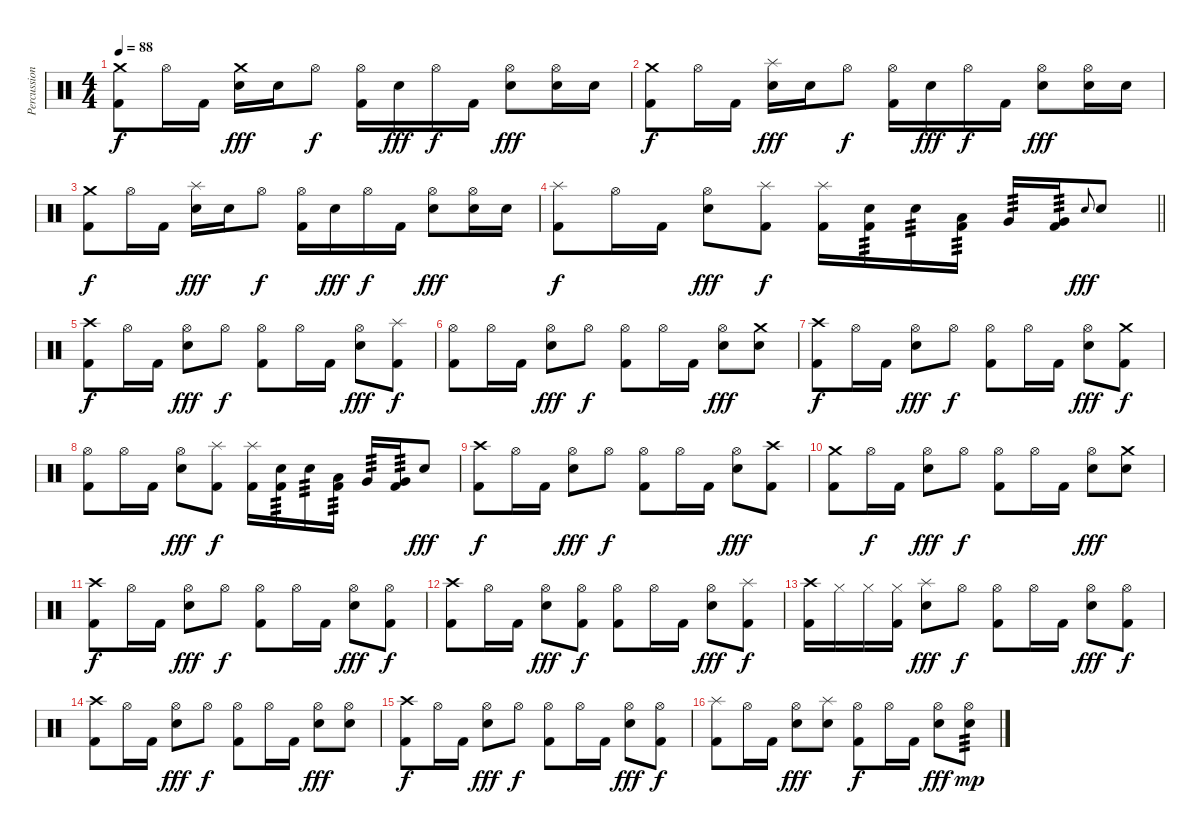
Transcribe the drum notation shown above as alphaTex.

\track ("Percussion" "Percussion") {instrument percussion}
\staff {score}
\articulation defaults
\ts (4 4)
\tempo 88
\clef neutral
\ks c
("Crash medium (hit)" "Kick (hit) 2").8{dy f} "Hi-Hat (open)".16 "Kick (hit) 2".16 ("Crash medium (hit)" "Electric Snare (hit)").16{dy fff} "Electric Snare (hit)".16 "Hi-Hat (open)".8{dy f} ("Hi-Hat (open)" "Kick (hit) 2").16 "Electric Snare (hit)".16{dy fff} "Hi-Hat (open)".16{dy f} "Kick (hit) 2".16 ("Hi-Hat (open)" "Electric Snare (hit)").8{dy fff} ("Hi-Hat (open)" "Electric Snare (hit)").16 "Electric Snare (hit)".16 |
("Crash medium (hit)" "Kick (hit) 2").8{dy f} "Hi-Hat (open)".16 "Kick (hit) 2".16 ("Splash (hit)" "Electric Snare (hit)").16{dy fff} "Electric Snare (hit)".16 "Hi-Hat (open)".8{dy f} ("Hi-Hat (open)" "Kick (hit) 2").16 "Electric Snare (hit)".16{dy fff} "Hi-Hat (open)".16{dy f} "Kick (hit) 2".16 ("Hi-Hat (open)" "Electric Snare (hit)").8{dy fff} ("Hi-Hat (open)" "Electric Snare (hit)").16 "Electric Snare (hit)".16 |
("Crash medium (hit)" "Kick (hit) 2").8{dy f} "Hi-Hat (open)".16 "Kick (hit) 2".16 ("Splash (hit)" "Electric Snare (hit)").16{dy fff} "Electric Snare (hit)".16 "Hi-Hat (open)".8{dy f} ("Hi-Hat (open)" "Kick (hit) 2").16 "Electric Snare (hit)".16{dy fff} "Hi-Hat (open)".16{dy f} "Kick (hit) 2".16 ("Hi-Hat (open)" "Electric Snare (hit)").8{dy fff} ("Hi-Hat (open)" "Electric Snare (hit)").16 "Electric Snare (hit)".16 |
\barLineRight lightlight
("Splash (hit)" "Kick (hit) 2").8{dy f} "Hi-Hat (open)".16 "Kick (hit) 2".16 ("Hi-Hat (open)" "Electric Snare (hit)").8{dy fff} ("Splash (hit)" "Kick (hit) 2").8{dy f} ("Splash (hit)" "Kick (hit) 2").16 ("Electric Snare (hit)" "Kick (hit) 2").16{tp 3} "Electric Snare (hit)".16{tp 3} ("Low Tom (hit)" "Kick (hit) 2").16{tp 3} "Very Low Tom (hit)".16{tp 3} ("Very Low Tom (hit)" "Kick (hit) 2").16{tp 3} "Electric Snare (hit)".8{gr onbeat dy fff} "Electric Snare (hit)".8 |
("Crash high (hit)" "Kick (hit) 2").8{dy f} "Hi-Hat (open)".16 "Kick (hit) 2".16 ("Hi-Hat (open)" "Electric Snare (hit)").8{dy fff} "Hi-Hat (open)".8{dy f} ("Hi-Hat (open)" "Kick (hit) 2").8 "Hi-Hat (open)".16 "Kick (hit) 2".16 ("Hi-Hat (open)" "Electric Snare (hit)").8{dy fff} ("Splash (hit)" "Kick (hit) 2").8{dy f} |
("Hi-Hat (open)" "Kick (hit) 2").8 "Hi-Hat (open)".16 "Kick (hit) 2".16 ("Hi-Hat (open)" "Electric Snare (hit)").8{dy fff} "Hi-Hat (open)".8{dy f} ("Hi-Hat (open)" "Kick (hit) 2").8 "Hi-Hat (open)".16 "Kick (hit) 2".16 ("Hi-Hat (open)" "Electric Snare (hit)").8{dy fff} ("Crash medium (hit)" "Electric Snare (hit)").8 |
("Crash high (hit)" "Kick (hit) 2").8{dy f} "Hi-Hat (open)".16 "Kick (hit) 2".16 ("Hi-Hat (open)" "Electric Snare (hit)").8{dy fff} "Hi-Hat (open)".8{dy f} ("Hi-Hat (open)" "Kick (hit) 2").8 "Hi-Hat (open)".16 "Kick (hit) 2".16 ("Hi-Hat (open)" "Electric Snare (hit)").8{dy fff} ("Crash medium (hit)" "Kick (hit) 2").8{dy f} |
("Hi-Hat (open)" "Kick (hit) 2").8 "Hi-Hat (open)".16 "Kick (hit) 2".16 ("Hi-Hat (open)" "Electric Snare (hit)").8{dy fff} ("Splash (hit)" "Kick (hit) 2").8{dy f} ("Splash (hit)" "Kick (hit) 2").16 ("Electric Snare (hit)" "Kick (hit) 2").16{tp 3} "Electric Snare (hit)".16{tp 3} ("Low Tom (hit)" "Kick (hit) 2").16{tp 3} "Very Low Tom (hit)".16{tp 3} ("Very Low Tom (hit)" "Kick (hit) 2").16{tp 3} "Electric Snare (hit)".8{dy fff} |
("Crash high (hit)" "Kick (hit) 2").8{dy f} "Hi-Hat (open)".16 "Kick (hit) 2".16 ("Hi-Hat (open)" "Electric Snare (hit)").8{dy fff} "Hi-Hat (open)".8{dy f} ("Hi-Hat (open)" "Kick (hit) 2").8 "Hi-Hat (open)".16 "Kick (hit) 2".16 ("Hi-Hat (open)" "Electric Snare (hit)").8{dy fff} ("Crash high (hit)" "Kick (hit) 2").8 |
("Crash medium (hit)" "Kick (hit) 2").8 "Hi-Hat (open)".16{dy f} "Kick (hit) 2".16 ("Hi-Hat (open)" "Electric Snare (hit)").8{dy fff} "Hi-Hat (open)".8{dy f} ("Hi-Hat (open)" "Kick (hit) 2").8 "Hi-Hat (open)".16 "Kick (hit) 2".16 ("Hi-Hat (open)" "Electric Snare (hit)").8{dy fff} ("Crash medium (hit)" "Electric Snare (hit)").8 |
("Crash high (hit)" "Kick (hit) 2").8{dy f} "Hi-Hat (open)".16 "Kick (hit) 2".16 ("Hi-Hat (open)" "Electric Snare (hit)").8{dy fff} "Hi-Hat (open)".8{dy f} ("Hi-Hat (open)" "Kick (hit) 2").8 "Hi-Hat (open)".16 "Kick (hit) 2".16 ("Hi-Hat (open)" "Electric Snare (hit)").8{dy fff} ("Hi-Hat (open)" "Kick (hit) 2").8{dy f} |
("Crash high (hit)" "Kick (hit) 2").8 "Hi-Hat (open)".16 "Kick (hit) 2".16 ("Hi-Hat (open)" "Electric Snare (hit)").8{dy fff} ("Hi-Hat (open)" "Kick (hit) 2").8{dy f} ("Hi-Hat (open)" "Kick (hit) 2").8 "Hi-Hat (open)".16 "Kick (hit) 2".16 ("Hi-Hat (open)" "Electric Snare (hit)").8{dy fff} ("Splash (hit)" "Kick (hit) 2").8{dy f} |
("Crash high (hit)" "Kick (hit) 2").16 "Hi-Hat (closed)".16 "Hi-Hat (closed)".16 ("Hi-Hat (closed)" "Kick (hit) 2").16 ("Splash (hit)" "Electric Snare (hit)").8{dy fff} "Hi-Hat (open)".8{dy f} ("Hi-Hat (open)" "Kick (hit) 2").8 "Hi-Hat (open)".16 "Kick (hit) 2".16 ("Hi-Hat (open)" "Electric Snare (hit)").8{dy fff} ("Hi-Hat (open)" "Kick (hit) 2").8{dy f} |
("Crash high (hit)" "Kick (hit) 2").8 "Hi-Hat (open)".16 "Kick (hit) 2".16 ("Hi-Hat (open)" "Electric Snare (hit)").8{dy fff} "Hi-Hat (open)".8{dy f} ("Hi-Hat (open)" "Kick (hit) 2").8 "Hi-Hat (open)".16 "Kick (hit) 2".16 ("Hi-Hat (open)" "Electric Snare (hit)").8{dy fff} ("Hi-Hat (open)" "Electric Snare (hit)").8 |
("Crash high (hit)" "Kick (hit) 2").8{dy f} "Hi-Hat (open)".16 "Kick (hit) 2".16 ("Hi-Hat (open)" "Electric Snare (hit)").8{dy fff} "Hi-Hat (open)".8{dy f} ("Hi-Hat (open)" "Kick (hit) 2").8 "Hi-Hat (open)".16 "Kick (hit) 2".16 ("Hi-Hat (open)" "Electric Snare (hit)").8{dy fff} ("Hi-Hat (open)" "Kick (hit) 2").8{dy f} |
("Splash (hit)" "Kick (hit) 2").8 "Hi-Hat (open)".16 "Kick (hit) 2".16 ("Hi-Hat (open)" "Electric Snare (hit)").8{dy fff} ("Splash (hit)" "Electric Snare (hit)").8 ("Hi-Hat (open)" "Kick (hit) 2").8{dy f} "Hi-Hat (open)".16 "Kick (hit) 2".16 ("Hi-Hat (open)" "Electric Snare (hit)").8{dy fff} ("Hi-Hat (open)" "Electric Snare (hit)").8{tp 3 dy mp}
